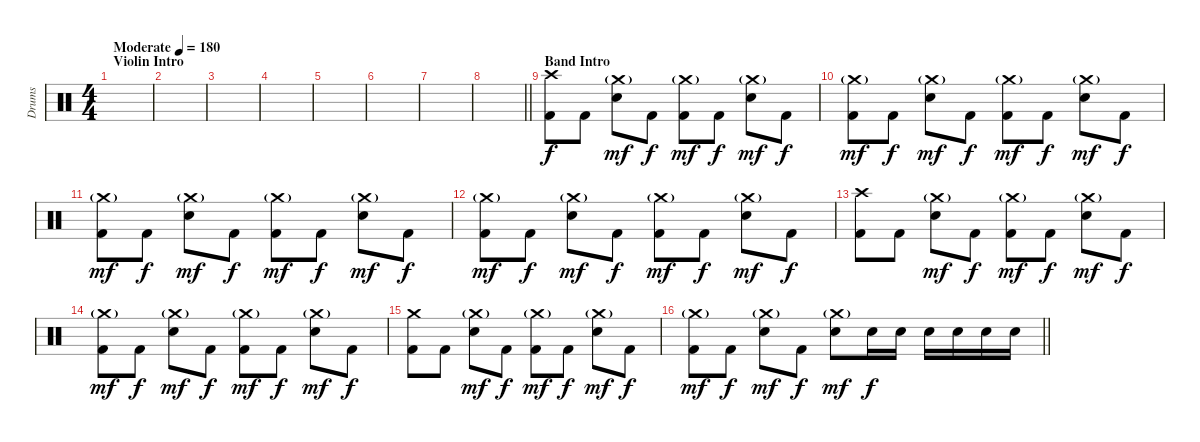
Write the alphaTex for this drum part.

\track ("Drums" "Drums") {instrument percussion}
\staff {score}
\articulation defaults
\ts (4 4)
\section ("" "Violin Intro")
\tempo (180 "Moderate")
\clef neutral
\ks c
|
|
|
|
|
|
|
\barLineRight lightlight
|
\section ("" "Band Intro")
("Crash high (hit)" "Kick (hit) 2").8 "Kick (hit) 2".8 ("Crash medium (hit)"{g} "Electric Snare (hit)").8{dy mf} "Kick (hit) 2".8{dy f} ("Crash medium (hit)"{g} "Kick (hit) 2").8{dy mf} "Kick (hit) 2".8{dy f} ("Crash medium (hit)"{g} "Electric Snare (hit)").8{dy mf} "Kick (hit) 2".8{dy f} |
("Crash medium (hit)"{g} "Kick (hit) 2").8{dy mf} "Kick (hit) 2".8{dy f} ("Crash medium (hit)"{g} "Electric Snare (hit)").8{dy mf} "Kick (hit) 2".8{dy f} ("Crash medium (hit)"{g} "Kick (hit) 2").8{dy mf} "Kick (hit) 2".8{dy f} ("Crash medium (hit)"{g} "Electric Snare (hit)").8{dy mf} "Kick (hit) 2".8{dy f} |
("Crash medium (hit)"{g} "Kick (hit) 2").8{dy mf} "Kick (hit) 2".8{dy f} ("Crash medium (hit)"{g} "Electric Snare (hit)").8{dy mf} "Kick (hit) 2".8{dy f} ("Crash medium (hit)"{g} "Kick (hit) 2").8{dy mf} "Kick (hit) 2".8{dy f} ("Crash medium (hit)"{g} "Electric Snare (hit)").8{dy mf} "Kick (hit) 2".8{dy f} |
("Crash medium (hit)"{g} "Kick (hit) 2").8{dy mf} "Kick (hit) 2".8{dy f} ("Crash medium (hit)"{g} "Electric Snare (hit)").8{dy mf} "Kick (hit) 2".8{dy f} ("Crash medium (hit)"{g} "Kick (hit) 2").8{dy mf} "Kick (hit) 2".8{dy f} ("Crash medium (hit)"{g} "Electric Snare (hit)").8{dy mf} "Kick (hit) 2".8{dy f} |
("Crash high (hit)" "Kick (hit) 2").8 "Kick (hit) 2".8 ("Crash medium (hit)"{g} "Electric Snare (hit)").8{dy mf} "Kick (hit) 2".8{dy f} ("Crash medium (hit)"{g} "Kick (hit) 2").8{dy mf} "Kick (hit) 2".8{dy f} ("Crash medium (hit)"{g} "Electric Snare (hit)").8{dy mf} "Kick (hit) 2".8{dy f} |
("Crash medium (hit)"{g} "Kick (hit) 2").8{dy mf} "Kick (hit) 2".8{dy f} ("Crash medium (hit)"{g} "Electric Snare (hit)").8{dy mf} "Kick (hit) 2".8{dy f} ("Crash medium (hit)"{g} "Kick (hit) 2").8{dy mf} "Kick (hit) 2".8{dy f} ("Crash medium (hit)"{g} "Electric Snare (hit)").8{dy mf} "Kick (hit) 2".8{dy f} |
("Crash medium (hit)" "Kick (hit) 2").8 "Kick (hit) 2".8 ("Crash medium (hit)"{g} "Electric Snare (hit)").8{dy mf} "Kick (hit) 2".8{dy f} ("Crash medium (hit)"{g} "Kick (hit) 2").8{dy mf} "Kick (hit) 2".8{dy f} ("Crash medium (hit)"{g} "Electric Snare (hit)").8{dy mf} "Kick (hit) 2".8{dy f} |
\barLineRight lightlight
("Crash medium (hit)"{g} "Kick (hit) 2").8{dy mf} "Kick (hit) 2".8{dy f} ("Crash medium (hit)"{g} "Electric Snare (hit)").8{dy mf} "Kick (hit) 2".8{dy f} ("Crash medium (hit)"{g} "Electric Snare (hit)").8{dy mf} "Electric Snare (hit)".16{dy f} "Electric Snare (hit)".16 "Electric Snare (hit)".16 "Electric Snare (hit)".16 "Electric Snare (hit)".16 "Electric Snare (hit)".16
